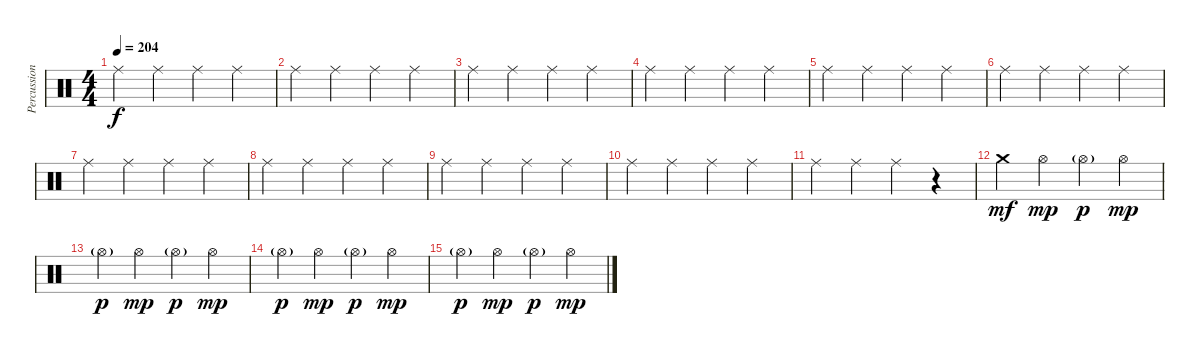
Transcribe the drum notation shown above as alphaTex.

\track ("Percussion2" "Percussion") {instrument percussion}
\staff {score}
\articulation defaults
\ts (4 4)
\tempo 204
\clef neutral
\ks c "Ride (middle)".4{dy f} "Ride (middle)".4 "Ride (middle)".4 "Ride (middle)".4
|
"Ride (middle)".4 "Ride (middle)".4 "Ride (middle)".4 "Ride (middle)".4 |
"Ride (middle)".4 "Ride (middle)".4 "Ride (middle)".4 "Ride (middle)".4 |
"Ride (middle)".4 "Ride (middle)".4 "Ride (middle)".4 "Ride (middle)".4 |
"Ride (middle)".4 "Ride (middle)".4 "Ride (middle)".4 "Ride (middle)".4 |
"Ride (middle)".4 "Ride (middle)".4 "Ride (middle)".4 "Ride (middle)".4 |
"Ride (middle)".4 "Ride (middle)".4 "Ride (middle)".4 "Ride (middle)".4 |
"Ride (middle)".4 "Ride (middle)".4 "Ride (middle)".4 "Ride (middle)".4 |
"Ride (middle)".4 "Ride (middle)".4 "Ride (middle)".4 "Ride (middle)".4 |
"Ride (middle)".4 "Ride (middle)".4 "Ride (middle)".4 "Ride (middle)".4 |
"Ride (middle)".4 "Ride (middle)".4 "Ride (middle)".4 r.4 |
"Crash medium (hit)".4{dy mf} "Hi-Hat (open)".4{dy mp} "Hi-Hat (open)"{g}.4{dy p} "Hi-Hat (open)".4{dy mp} |
"Hi-Hat (open)"{g}.4{dy p} "Hi-Hat (open)".4{dy mp} "Hi-Hat (open)"{g}.4{dy p} "Hi-Hat (open)".4{dy mp} |
"Hi-Hat (open)"{g}.4{dy p} "Hi-Hat (open)".4{dy mp} "Hi-Hat (open)"{g}.4{dy p} "Hi-Hat (open)".4{dy mp} |
"Hi-Hat (open)"{g}.4{dy p} "Hi-Hat (open)".4{dy mp} "Hi-Hat (open)"{g}.4{dy p} "Hi-Hat (open)".4{dy mp}
